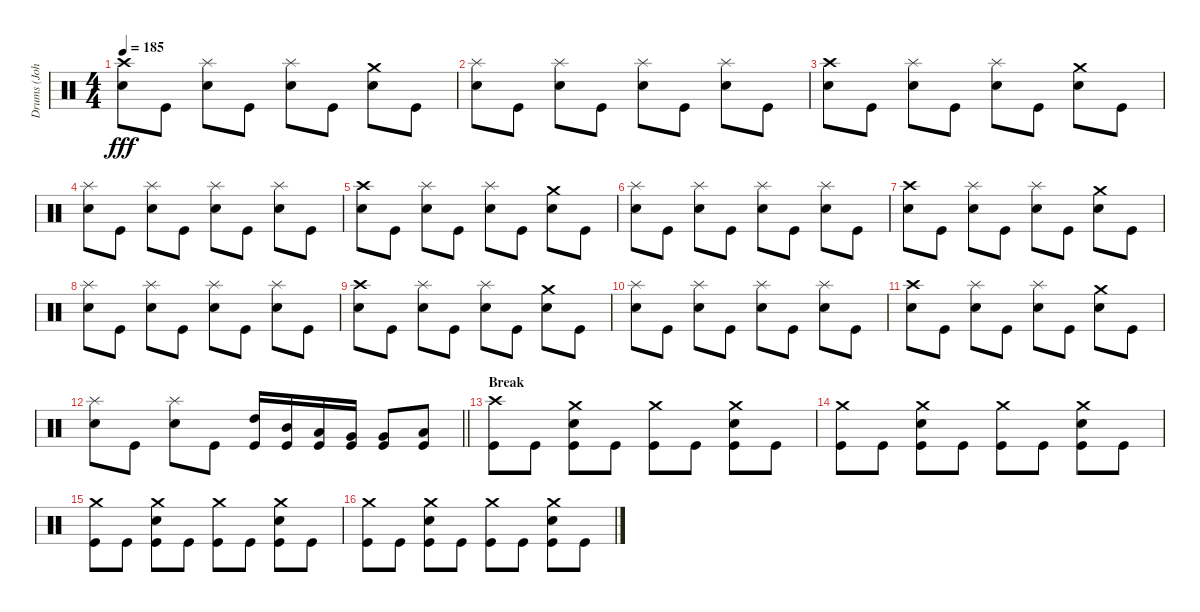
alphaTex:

\track ("Drums (John Bengtsson)" "Drums (Joh") {instrument percussion}
\staff {score}
\articulation defaults
\ts (4 4)
\tempo 185
\clef neutral
\ks c
("Crash high (hit)" "Electric Snare (hit)").8{dy fff} "Kick (hit)".8 ("Splash (hit)" "Electric Snare (hit)").8 "Kick (hit)".8 ("Splash (hit)" "Electric Snare (hit)").8 "Kick (hit)".8 ("Crash medium (hit)" "Electric Snare (hit)").8 "Kick (hit)".8 |
("Splash (hit)" "Electric Snare (hit)").8 "Kick (hit)".8 ("Splash (hit)" "Electric Snare (hit)").8 "Kick (hit)".8 ("Splash (hit)" "Electric Snare (hit)").8 "Kick (hit)".8 ("Splash (hit)" "Electric Snare (hit)").8 "Kick (hit)".8 |
("Crash high (hit)" "Electric Snare (hit)").8 "Kick (hit)".8 ("Splash (hit)" "Electric Snare (hit)").8 "Kick (hit)".8 ("Splash (hit)" "Electric Snare (hit)").8 "Kick (hit)".8 ("Crash medium (hit)" "Electric Snare (hit)").8 "Kick (hit)".8 |
("Splash (hit)" "Electric Snare (hit)").8 "Kick (hit)".8 ("Splash (hit)" "Electric Snare (hit)").8 "Kick (hit)".8 ("Splash (hit)" "Electric Snare (hit)").8 "Kick (hit)".8 ("Splash (hit)" "Electric Snare (hit)").8 "Kick (hit)".8 |
("Crash high (hit)" "Electric Snare (hit)").8 "Kick (hit)".8 ("Splash (hit)" "Electric Snare (hit)").8 "Kick (hit)".8 ("Splash (hit)" "Electric Snare (hit)").8 "Kick (hit)".8 ("Crash medium (hit)" "Electric Snare (hit)").8 "Kick (hit)".8 |
("Splash (hit)" "Electric Snare (hit)").8 "Kick (hit)".8 ("Splash (hit)" "Electric Snare (hit)").8 "Kick (hit)".8 ("Splash (hit)" "Electric Snare (hit)").8 "Kick (hit)".8 ("Splash (hit)" "Electric Snare (hit)").8 "Kick (hit)".8 |
("Crash high (hit)" "Electric Snare (hit)").8 "Kick (hit)".8 ("Splash (hit)" "Electric Snare (hit)").8 "Kick (hit)".8 ("Splash (hit)" "Electric Snare (hit)").8 "Kick (hit)".8 ("Crash medium (hit)" "Electric Snare (hit)").8 "Kick (hit)".8 |
("Splash (hit)" "Electric Snare (hit)").8 "Kick (hit)".8 ("Splash (hit)" "Electric Snare (hit)").8 "Kick (hit)".8 ("Splash (hit)" "Electric Snare (hit)").8 "Kick (hit)".8 ("Splash (hit)" "Electric Snare (hit)").8 "Kick (hit)".8 |
("Crash high (hit)" "Electric Snare (hit)").8 "Kick (hit)".8 ("Splash (hit)" "Electric Snare (hit)").8 "Kick (hit)".8 ("Splash (hit)" "Electric Snare (hit)").8 "Kick (hit)".8 ("Crash medium (hit)" "Electric Snare (hit)").8 "Kick (hit)".8 |
("Splash (hit)" "Electric Snare (hit)").8 "Kick (hit)".8 ("Splash (hit)" "Electric Snare (hit)").8 "Kick (hit)".8 ("Splash (hit)" "Electric Snare (hit)").8 "Kick (hit)".8 ("Splash (hit)" "Electric Snare (hit)").8 "Kick (hit)".8 |
("Crash high (hit)" "Electric Snare (hit)").8 "Kick (hit)".8 ("Splash (hit)" "Electric Snare (hit)").8 "Kick (hit)".8 ("Splash (hit)" "Electric Snare (hit)").8 "Kick (hit)".8 ("Crash medium (hit)" "Electric Snare (hit)").8 "Kick (hit)".8 |
\barLineRight lightlight
("Splash (hit)" "Electric Snare (hit)").8 "Kick (hit)".8 ("Splash (hit)" "Electric Snare (hit)").8 "Kick (hit)".8 ("High Tom (hit)" "Kick (hit)").16 ("Mid Tom (hit)" "Kick (hit)").16 ("Low Tom (hit)" "Kick (hit)").16 ("Very Low Tom (hit)" "Kick (hit)").16 ("Very Low Tom (hit)" "Kick (hit)").8 ("Low Floor Tom (hit)" "Kick (hit)").8 |
\section ("" "Break")
("Crash high (hit)" "Kick (hit)").8 "Kick (hit)".8 ("Crash medium (hit)" "Electric Snare (hit)" "Kick (hit)").8 "Kick (hit)".8 ("Crash medium (hit)" "Kick (hit)").8 "Kick (hit)".8 ("Crash medium (hit)" "Electric Snare (hit)" "Kick (hit)").8 "Kick (hit)".8 |
("Crash medium (hit)" "Kick (hit)").8 "Kick (hit)".8 ("Crash medium (hit)" "Electric Snare (hit)" "Kick (hit)").8 "Kick (hit)".8 ("Crash medium (hit)" "Kick (hit)").8 "Kick (hit)".8 ("Crash medium (hit)" "Electric Snare (hit)" "Kick (hit)").8 "Kick (hit)".8 |
("Crash medium (hit)" "Kick (hit)").8 "Kick (hit)".8 ("Crash medium (hit)" "Electric Snare (hit)" "Kick (hit)").8 "Kick (hit)".8 ("Crash medium (hit)" "Kick (hit)").8 "Kick (hit)".8 ("Crash medium (hit)" "Electric Snare (hit)" "Kick (hit)").8 "Kick (hit)".8 |
("Crash medium (hit)" "Kick (hit)").8 "Kick (hit)".8 ("Crash medium (hit)" "Electric Snare (hit)" "Kick (hit)").8 "Kick (hit)".8 ("Crash medium (hit)" "Kick (hit)").8 "Kick (hit)".8 ("Crash medium (hit)" "Electric Snare (hit)" "Kick (hit)").8 "Kick (hit)".8
